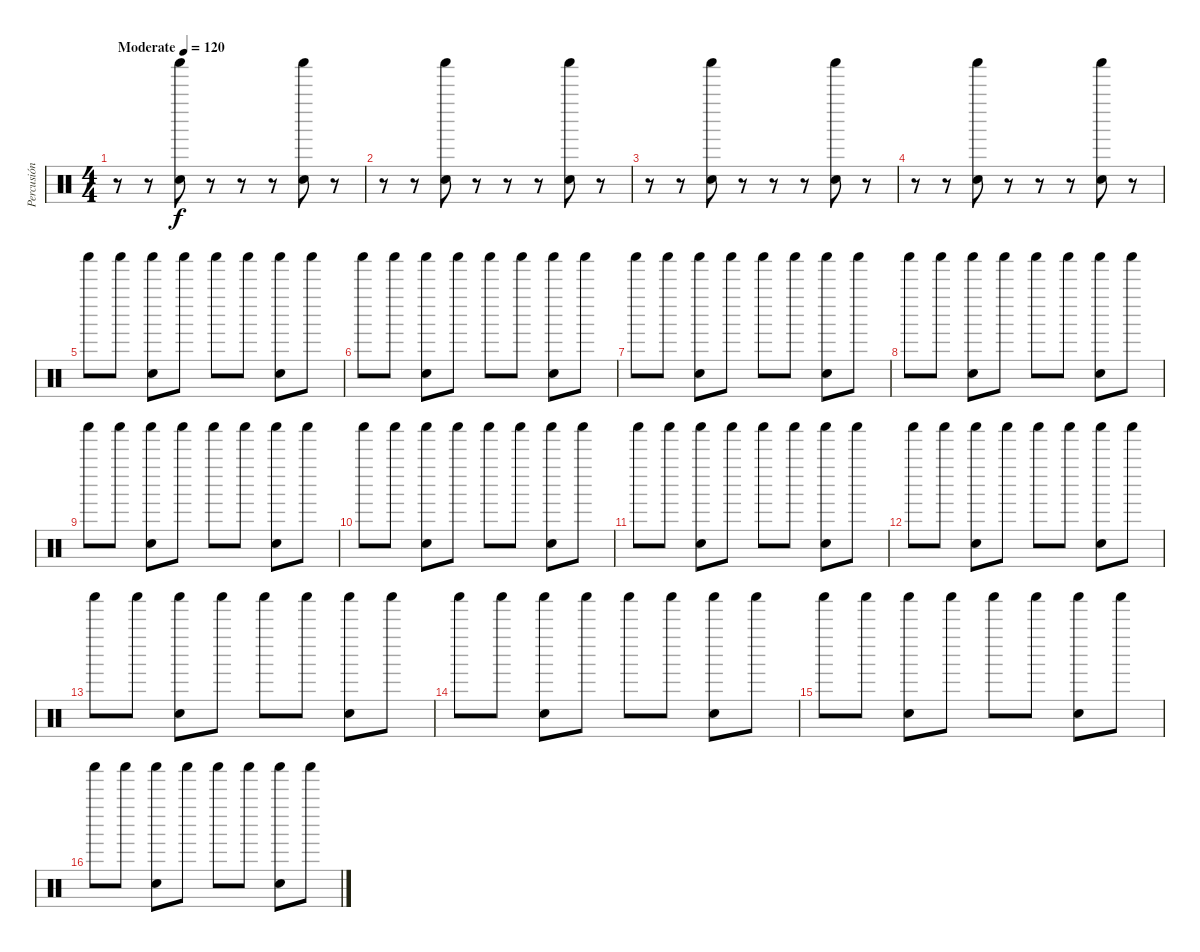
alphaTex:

\track ("Percusión" "Percusión") {instrument percussion}
\staff {score}
\articulation defaults
\ts (4 4)
\tempo (120 "Moderate")
\clef neutral
\ks c
r.8{dy f} r.8 ("Shaker (hit)" "Hand Clap (hit)").8 r.8 r.8 r.8 ("Shaker (hit)" "Hand Clap (hit)").8 r.8 |
r.8 r.8 ("Shaker (hit)" "Hand Clap (hit)").8 r.8 r.8 r.8 ("Shaker (hit)" "Hand Clap (hit)").8 r.8 |
r.8 r.8 ("Shaker (hit)" "Hand Clap (hit)").8 r.8 r.8 r.8 ("Shaker (hit)" "Hand Clap (hit)").8 r.8 |
r.8 r.8 ("Shaker (hit)" "Hand Clap (hit)").8 r.8 r.8 r.8 ("Shaker (hit)" "Hand Clap (hit)").8 r.8 |
"Shaker (hit)".8 "Shaker (hit)".8 ("Shaker (hit)" "Hand Clap (hit)").8 "Shaker (hit)".8 "Shaker (hit)".8 "Shaker (hit)".8 ("Shaker (hit)" "Hand Clap (hit)").8 "Shaker (hit)".8 |
"Shaker (hit)".8 "Shaker (hit)".8 ("Shaker (hit)" "Hand Clap (hit)").8 "Shaker (hit)".8 "Shaker (hit)".8 "Shaker (hit)".8 ("Shaker (hit)" "Hand Clap (hit)").8 "Shaker (hit)".8 |
"Shaker (hit)".8 "Shaker (hit)".8 ("Shaker (hit)" "Hand Clap (hit)").8 "Shaker (hit)".8 "Shaker (hit)".8 "Shaker (hit)".8 ("Shaker (hit)" "Hand Clap (hit)").8 "Shaker (hit)".8 |
"Shaker (hit)".8 "Shaker (hit)".8 ("Shaker (hit)" "Hand Clap (hit)").8 "Shaker (hit)".8 "Shaker (hit)".8 "Shaker (hit)".8 ("Shaker (hit)" "Hand Clap (hit)").8 "Shaker (hit)".8 |
"Shaker (hit)".8 "Shaker (hit)".8 ("Shaker (hit)" "Hand Clap (hit)").8 "Shaker (hit)".8 "Shaker (hit)".8 "Shaker (hit)".8 ("Shaker (hit)" "Hand Clap (hit)").8 "Shaker (hit)".8 |
"Shaker (hit)".8 "Shaker (hit)".8 ("Shaker (hit)" "Hand Clap (hit)").8 "Shaker (hit)".8 "Shaker (hit)".8 "Shaker (hit)".8 ("Shaker (hit)" "Hand Clap (hit)").8 "Shaker (hit)".8 |
"Shaker (hit)".8 "Shaker (hit)".8 ("Shaker (hit)" "Hand Clap (hit)").8 "Shaker (hit)".8 "Shaker (hit)".8 "Shaker (hit)".8 ("Shaker (hit)" "Hand Clap (hit)").8 "Shaker (hit)".8 |
"Shaker (hit)".8 "Shaker (hit)".8 ("Shaker (hit)" "Hand Clap (hit)").8 "Shaker (hit)".8 "Shaker (hit)".8 "Shaker (hit)".8 ("Shaker (hit)" "Hand Clap (hit)").8 "Shaker (hit)".8 |
"Shaker (hit)".8 "Shaker (hit)".8 ("Shaker (hit)" "Hand Clap (hit)").8 "Shaker (hit)".8 "Shaker (hit)".8 "Shaker (hit)".8 ("Shaker (hit)" "Hand Clap (hit)").8 "Shaker (hit)".8 |
"Shaker (hit)".8 "Shaker (hit)".8 ("Shaker (hit)" "Hand Clap (hit)").8 "Shaker (hit)".8 "Shaker (hit)".8 "Shaker (hit)".8 ("Shaker (hit)" "Hand Clap (hit)").8 "Shaker (hit)".8 |
"Shaker (hit)".8 "Shaker (hit)".8 ("Shaker (hit)" "Hand Clap (hit)").8 "Shaker (hit)".8 "Shaker (hit)".8 "Shaker (hit)".8 ("Shaker (hit)" "Hand Clap (hit)").8 "Shaker (hit)".8 |
"Shaker (hit)".8 "Shaker (hit)".8 ("Shaker (hit)" "Hand Clap (hit)").8 "Shaker (hit)".8 "Shaker (hit)".8 "Shaker (hit)".8 ("Shaker (hit)" "Hand Clap (hit)").8 "Shaker (hit)".8
